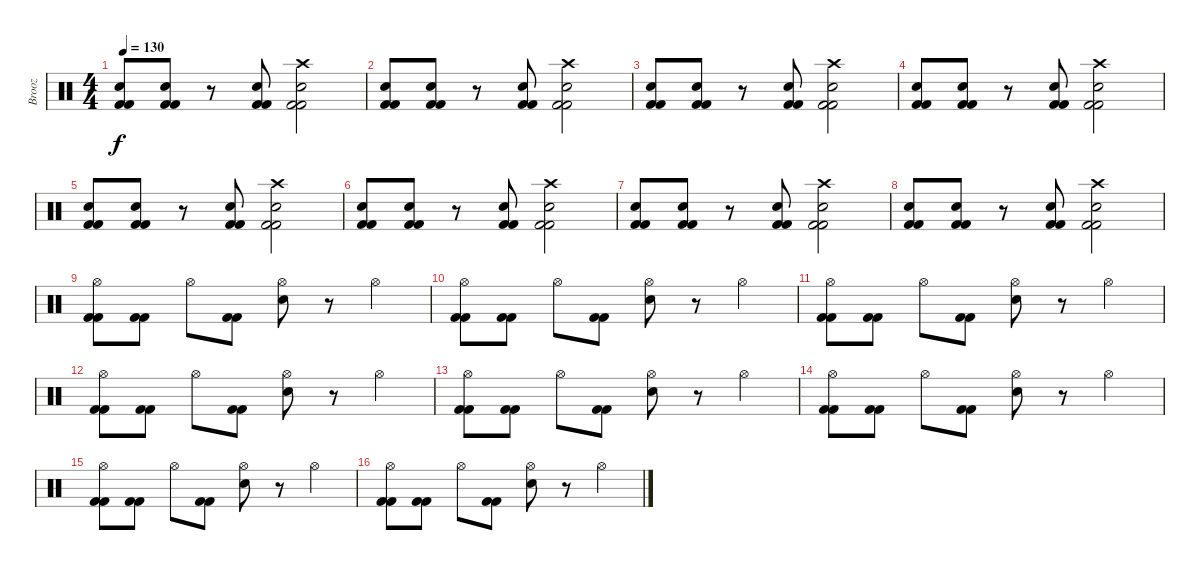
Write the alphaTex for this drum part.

\track ("Brooz" "Brooz") {instrument percussion}
\staff {score}
\articulation defaults
\ts (4 4)
\tempo 130
\clef neutral
\ks c
("Snare (hit) 2" "Kick (hit) 2" "Kick (hit) 2").8{dy f} ("Snare (hit) 2" "Kick (hit) 2" "Kick (hit) 2").8 r.8 ("Snare (hit) 2" "Kick (hit) 2" "Kick (hit) 2").8 ("Crash high (hit)" "Snare (hit) 2" "Kick (hit) 2" "Kick (hit) 2").2 |
("Snare (hit) 2" "Kick (hit) 2" "Kick (hit) 2").8 ("Snare (hit) 2" "Kick (hit) 2" "Kick (hit) 2").8 r.8 ("Snare (hit) 2" "Kick (hit) 2" "Kick (hit) 2").8 ("Crash high (hit)" "Snare (hit) 2" "Kick (hit) 2" "Kick (hit) 2").2 |
("Snare (hit) 2" "Kick (hit) 2" "Kick (hit) 2").8 ("Snare (hit) 2" "Kick (hit) 2" "Kick (hit) 2").8 r.8 ("Snare (hit) 2" "Kick (hit) 2" "Kick (hit) 2").8 ("Crash high (hit)" "Snare (hit) 2" "Kick (hit) 2" "Kick (hit) 2").2 |
("Snare (hit) 2" "Kick (hit) 2" "Kick (hit) 2").8 ("Snare (hit) 2" "Kick (hit) 2" "Kick (hit) 2").8 r.8 ("Snare (hit) 2" "Kick (hit) 2" "Kick (hit) 2").8 ("Crash high (hit)" "Snare (hit) 2" "Kick (hit) 2" "Kick (hit) 2").2 |
("Snare (hit) 2" "Kick (hit) 2" "Kick (hit) 2").8 ("Snare (hit) 2" "Kick (hit) 2" "Kick (hit) 2").8 r.8 ("Snare (hit) 2" "Kick (hit) 2" "Kick (hit) 2").8 ("Crash high (hit)" "Snare (hit) 2" "Kick (hit) 2" "Kick (hit) 2").2 |
("Snare (hit) 2" "Kick (hit) 2" "Kick (hit) 2").8 ("Snare (hit) 2" "Kick (hit) 2" "Kick (hit) 2").8 r.8 ("Snare (hit) 2" "Kick (hit) 2" "Kick (hit) 2").8 ("Crash high (hit)" "Snare (hit) 2" "Kick (hit) 2" "Kick (hit) 2").2 |
("Snare (hit) 2" "Kick (hit) 2" "Kick (hit) 2").8 ("Snare (hit) 2" "Kick (hit) 2" "Kick (hit) 2").8 r.8 ("Snare (hit) 2" "Kick (hit) 2" "Kick (hit) 2").8 ("Crash high (hit)" "Snare (hit) 2" "Kick (hit) 2" "Kick (hit) 2").2 |
("Snare (hit) 2" "Kick (hit) 2" "Kick (hit) 2").8 ("Snare (hit) 2" "Kick (hit) 2" "Kick (hit) 2").8 r.8 ("Snare (hit) 2" "Kick (hit) 2" "Kick (hit) 2").8 ("Crash high (hit)" "Snare (hit) 2" "Kick (hit) 2" "Kick (hit) 2").2 |
("Hi-Hat (open)" "Kick (hit) 2" "Kick (hit) 2").8 ("Kick (hit) 2" "Kick (hit) 2").8 "Hi-Hat (open)".8 ("Kick (hit) 2" "Kick (hit) 2").8 ("Hi-Hat (open)" "Snare (hit) 2").8 r.8 "Hi-Hat (open)".4 |
("Hi-Hat (open)" "Kick (hit) 2" "Kick (hit) 2").8 ("Kick (hit) 2" "Kick (hit) 2").8 "Hi-Hat (open)".8 ("Kick (hit) 2" "Kick (hit) 2").8 ("Hi-Hat (open)" "Snare (hit) 2").8 r.8 "Hi-Hat (open)".4 |
("Hi-Hat (open)" "Kick (hit) 2" "Kick (hit) 2").8 ("Kick (hit) 2" "Kick (hit) 2").8 "Hi-Hat (open)".8 ("Kick (hit) 2" "Kick (hit) 2").8 ("Hi-Hat (open)" "Snare (hit) 2").8 r.8 "Hi-Hat (open)".4 |
("Hi-Hat (open)" "Kick (hit) 2" "Kick (hit) 2").8 ("Kick (hit) 2" "Kick (hit) 2").8 "Hi-Hat (open)".8 ("Kick (hit) 2" "Kick (hit) 2").8 ("Hi-Hat (open)" "Snare (hit) 2").8 r.8 "Hi-Hat (open)".4 |
("Hi-Hat (open)" "Kick (hit) 2" "Kick (hit) 2").8 ("Kick (hit) 2" "Kick (hit) 2").8 "Hi-Hat (open)".8 ("Kick (hit) 2" "Kick (hit) 2").8 ("Hi-Hat (open)" "Snare (hit) 2").8 r.8 "Hi-Hat (open)".4 |
("Hi-Hat (open)" "Kick (hit) 2" "Kick (hit) 2").8 ("Kick (hit) 2" "Kick (hit) 2").8 "Hi-Hat (open)".8 ("Kick (hit) 2" "Kick (hit) 2").8 ("Hi-Hat (open)" "Snare (hit) 2").8 r.8 "Hi-Hat (open)".4 |
("Hi-Hat (open)" "Kick (hit) 2" "Kick (hit) 2").8 ("Kick (hit) 2" "Kick (hit) 2").8 "Hi-Hat (open)".8 ("Kick (hit) 2" "Kick (hit) 2").8 ("Hi-Hat (open)" "Snare (hit) 2").8 r.8 "Hi-Hat (open)".4 |
("Hi-Hat (open)" "Kick (hit) 2" "Kick (hit) 2").8 ("Kick (hit) 2" "Kick (hit) 2").8 "Hi-Hat (open)".8 ("Kick (hit) 2" "Kick (hit) 2").8 ("Hi-Hat (open)" "Snare (hit) 2").8 r.8 "Hi-Hat (open)".4
